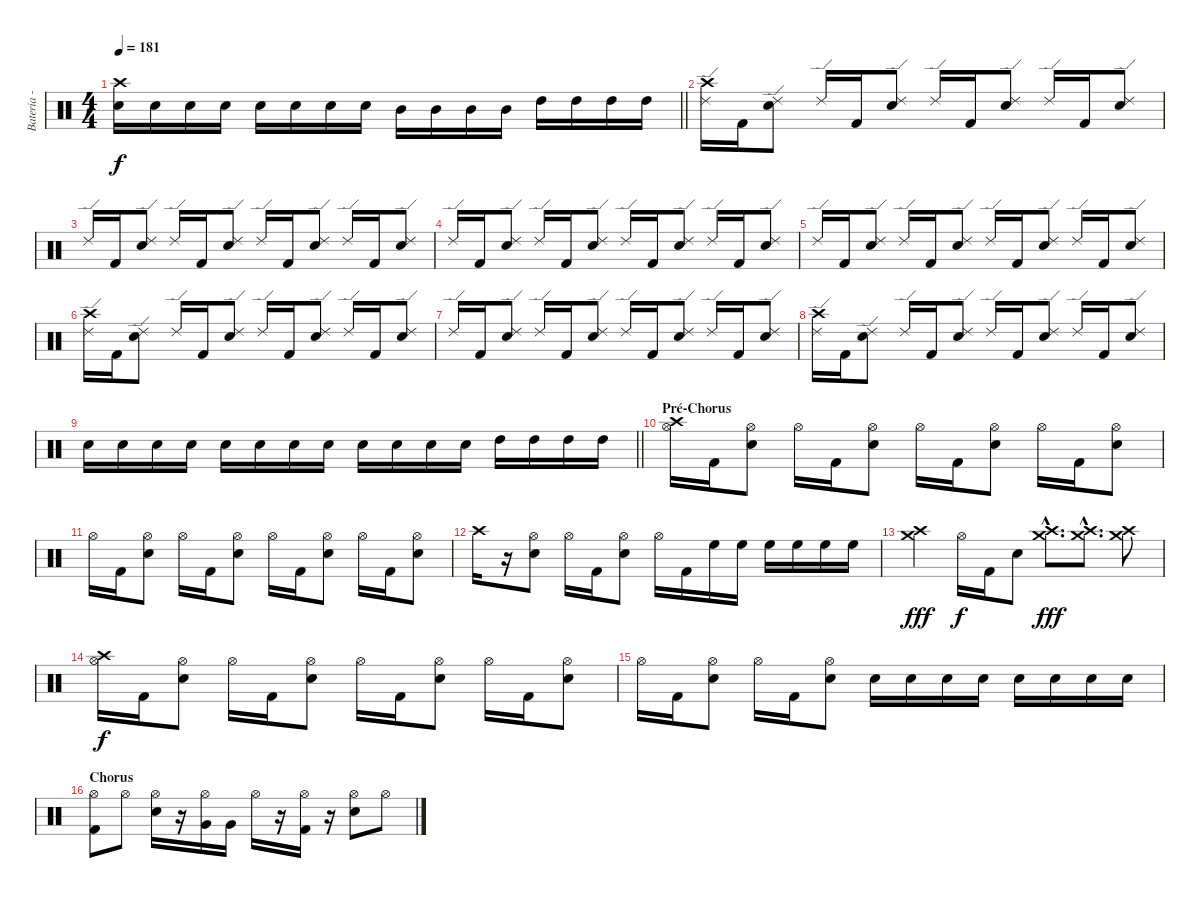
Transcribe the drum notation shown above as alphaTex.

\track ("Bateria - Larzon" "Bateria - ") {instrument percussion}
\staff {score}
\articulation defaults
\ts (4 4)
\tempo 181
\clef neutral
\barLineRight lightlight
\ks c
("Electric Snare (hit)" "Crash high (hit)").16{dy f} "Electric Snare (hit)".16 "Electric Snare (hit)".16 "Electric Snare (hit)".16 "Electric Snare (hit)".16 "Electric Snare (hit)".16 "Electric Snare (hit)".16 "Electric Snare (hit)".16 "Mid Tom (hit)".16 "Mid Tom (hit)".16 "Mid Tom (hit)".16 "Mid Tom (hit)".16 "High Tom (hit)".16 "High Tom (hit)".16 "High Tom (hit)".16 "High Tom (hit)".16 |
("Crash high (hit)" "Ride (edge) 2").16 "Kick (hit) 2".16 ("Electric Snare (hit)" "Ride (edge) 2").8 "Ride (edge) 2".16 "Kick (hit) 2".16 ("Electric Snare (hit)" "Ride (edge) 2").8 "Ride (edge) 2".16 "Kick (hit) 2".16 ("Electric Snare (hit)" "Ride (edge) 2").8 "Ride (edge) 2".16 "Kick (hit) 2".16 ("Electric Snare (hit)" "Ride (edge) 2").8 |
"Ride (edge) 2".16 "Kick (hit) 2".16 ("Electric Snare (hit)" "Ride (edge) 2").8 "Ride (edge) 2".16 "Kick (hit) 2".16 ("Electric Snare (hit)" "Ride (edge) 2").8 "Ride (edge) 2".16 "Kick (hit) 2".16 ("Electric Snare (hit)" "Ride (edge) 2").8 "Ride (edge) 2".16 "Kick (hit) 2".16 ("Electric Snare (hit)" "Ride (edge) 2").8 |
"Ride (edge) 2".16 "Kick (hit) 2".16 ("Electric Snare (hit)" "Ride (edge) 2").8 "Ride (edge) 2".16 "Kick (hit) 2".16 ("Electric Snare (hit)" "Ride (edge) 2").8 "Ride (edge) 2".16 "Kick (hit) 2".16 ("Electric Snare (hit)" "Ride (edge) 2").8 "Ride (edge) 2".16 "Kick (hit) 2".16 ("Electric Snare (hit)" "Ride (edge) 2").8 |
"Ride (edge) 2".16 "Kick (hit) 2".16 ("Electric Snare (hit)" "Ride (edge) 2").8 "Ride (edge) 2".16 "Kick (hit) 2".16 ("Electric Snare (hit)" "Ride (edge) 2").8 "Ride (edge) 2".16 "Kick (hit) 2".16 ("Electric Snare (hit)" "Ride (edge) 2").8 "Ride (edge) 2".16 "Kick (hit) 2".16 ("Electric Snare (hit)" "Ride (edge) 2").8 |
("Crash high (hit)" "Ride (edge) 2").16 "Kick (hit) 2".16 ("Electric Snare (hit)" "Ride (edge) 2").8 "Ride (edge) 2".16 "Kick (hit) 2".16 ("Electric Snare (hit)" "Ride (edge) 2").8 "Ride (edge) 2".16 "Kick (hit) 2".16 ("Electric Snare (hit)" "Ride (edge) 2").8 "Ride (edge) 2".16 "Kick (hit) 2".16 ("Electric Snare (hit)" "Ride (edge) 2").8 |
"Ride (edge) 2".16 "Kick (hit) 2".16 ("Electric Snare (hit)" "Ride (edge) 2").8 "Ride (edge) 2".16 "Kick (hit) 2".16 ("Electric Snare (hit)" "Ride (edge) 2").8 "Ride (edge) 2".16 "Kick (hit) 2".16 ("Electric Snare (hit)" "Ride (edge) 2").8 "Ride (edge) 2".16 "Kick (hit) 2".16 ("Electric Snare (hit)" "Ride (edge) 2").8 |
("Crash high (hit)" "Ride (edge) 2").16 "Kick (hit) 2".16 ("Electric Snare (hit)" "Ride (edge) 2").8 "Ride (edge) 2".16 "Kick (hit) 2".16 ("Electric Snare (hit)" "Ride (edge) 2").8 "Ride (edge) 2".16 "Kick (hit) 2".16 ("Electric Snare (hit)" "Ride (edge) 2").8 "Ride (edge) 2".16 "Kick (hit) 2".16 ("Electric Snare (hit)" "Ride (edge) 2").8 |
\barLineRight lightlight "Electric Snare (hit)".16 "Electric Snare (hit)".16 "Electric Snare (hit)".16 "Electric Snare (hit)".16 "Electric Snare (hit)".16 "Electric Snare (hit)".16 "Electric Snare (hit)".16 "Electric Snare (hit)".16 "Electric Snare (hit)".16 "Electric Snare (hit)".16 "Electric Snare (hit)".16 "Electric Snare (hit)".16 "High Tom (hit)".16 "High Tom (hit)".16 "High Tom (hit)".16 "High Tom (hit)".16
|
\section ("" "Pré-Chorus")
("Crash high (hit)" "Hi-Hat (open)").16 "Kick (hit) 2".16 ("Electric Snare (hit)" "Hi-Hat (open)").8 "Hi-Hat (open)".16 "Kick (hit) 2".16 ("Electric Snare (hit)" "Hi-Hat (open)").8 "Hi-Hat (open)".16 "Kick (hit) 2".16 ("Electric Snare (hit)" "Hi-Hat (open)").8 "Hi-Hat (open)".16 "Kick (hit) 2".16 ("Electric Snare (hit)" "Hi-Hat (open)").8 |
"Hi-Hat (open)".16 "Kick (hit) 2".16 ("Electric Snare (hit)" "Hi-Hat (open)").8 "Hi-Hat (open)".16 "Kick (hit) 2".16 ("Electric Snare (hit)" "Hi-Hat (open)").8 "Hi-Hat (open)".16 "Kick (hit) 2".16 ("Electric Snare (hit)" "Hi-Hat (open)").8 "Hi-Hat (open)".16 "Kick (hit) 2".16 ("Electric Snare (hit)" "Hi-Hat (open)").8 |
"Crash high (hit)".16 r.16 ("Electric Snare (hit)" "Hi-Hat (open)").8 "Hi-Hat (open)".16 "Kick (hit) 2".16 ("Electric Snare (hit)" "Hi-Hat (open)").8 "Hi-Hat (open)".16 "Kick (hit) 2".16 "High Floor Tom (hit)".16 "High Floor Tom (hit)".16 "High Floor Tom (hit)".16 "High Floor Tom (hit)".16 "High Floor Tom (hit)".16 "High Floor Tom (hit)".16 |
("Crash high (hit)" "Crash medium (hit)").4{dy fff} "Hi-Hat (open)".16{dy f} "Kick (hit) 2".16 "Electric Snare (hit)".8 ("Crash high (hit)"{hac} "Crash medium (hit)"{hac}).8{d dy fff} ("Crash high (hit)"{hac} "Crash medium (hit)"{hac}).8{d} ("Crash high (hit)" "Crash medium (hit)").8 |
("Crash high (hit)" "Hi-Hat (open)").16{dy f} "Kick (hit) 2".16 ("Electric Snare (hit)" "Hi-Hat (open)").8 "Hi-Hat (open)".16 "Kick (hit) 2".16 ("Electric Snare (hit)" "Hi-Hat (open)").8 "Hi-Hat (open)".16 "Kick (hit) 2".16 ("Electric Snare (hit)" "Hi-Hat (open)").8 "Hi-Hat (open)".16 "Kick (hit) 2".16 ("Electric Snare (hit)" "Hi-Hat (open)").8 |
"Hi-Hat (open)".16 "Kick (hit) 2".16 ("Electric Snare (hit)" "Hi-Hat (open)").8 "Hi-Hat (open)".16 "Kick (hit) 2".16 ("Electric Snare (hit)" "Hi-Hat (open)").8 "Electric Snare (hit)".16 "Electric Snare (hit)".16 "Electric Snare (hit)".16 "Electric Snare (hit)".16 "Electric Snare (hit)".16 "Electric Snare (hit)".16 "Electric Snare (hit)".16 "Electric Snare (hit)".16 |
\section ("" "Chorus")
("Kick (hit) 2" "Hi-Hat (open)").8 "Hi-Hat (open)".8 ("Electric Snare (hit)" "Hi-Hat (open)").16 r.16 ("Very Low Tom (hit)" "Hi-Hat (open)").16 "Very Low Tom (hit)".16 "Hi-Hat (open)".16 r.16 ("Kick (hit) 2" "Hi-Hat (open)").16 r.16 ("Electric Snare (hit)" "Hi-Hat (open)").8 "Hi-Hat (open)".8
